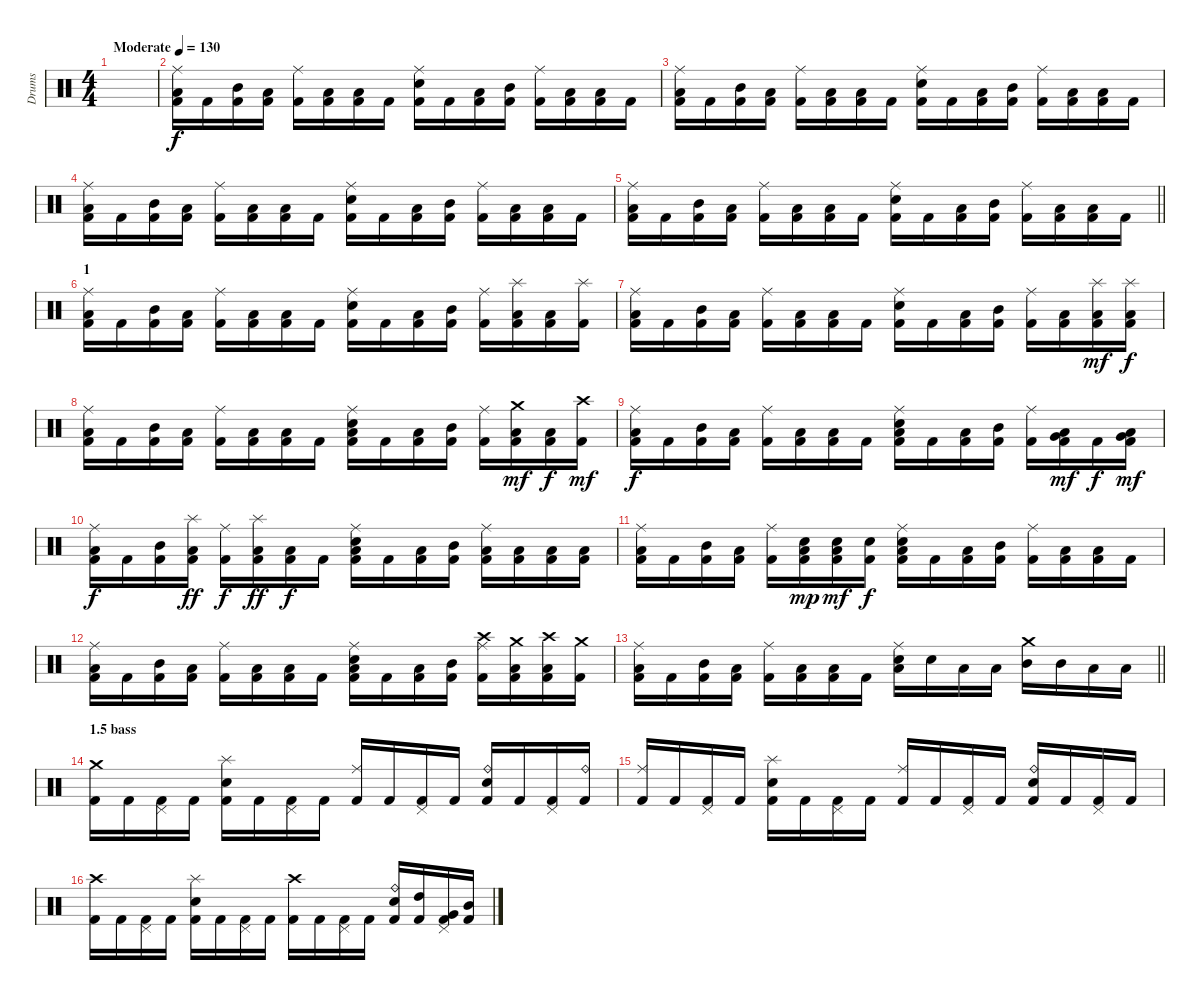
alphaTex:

\track ("Drums" "Drums") {instrument percussion}
\staff {score}
\articulation defaults
\ts (4 4)
\tempo (130 "Moderate")
\clef neutral
\ks c
|
("Ride (middle)" "Low Tom (hit)" "Kick (hit) 2").16{volume 16} "Kick (hit) 2".16 ("Mid Tom (hit)" "Kick (hit) 2").16 ("Low Tom (hit)" "Kick (hit) 2").16 ("Ride (middle)" "Kick (hit) 2").16 ("Low Tom (hit)" "Kick (hit) 2").16 ("Low Floor Tom (hit)" "Kick (hit) 2").16 "Kick (hit) 2".16 ("Ride (middle)" "Electric Snare (hit)" "Kick (hit) 2").16 "Kick (hit) 2".16 ("Low Tom (hit)" "Kick (hit) 2").16 ("Mid Tom (hit)" "Kick (hit) 2").16 ("Ride (middle)" "Kick (hit) 2").16 ("Low Tom (hit)" "Kick (hit) 2").16 ("Low Floor Tom (hit)" "Kick (hit) 2").16 "Kick (hit) 2".16 |
("Ride (middle)" "Low Tom (hit)" "Kick (hit) 2").16 "Kick (hit) 2".16 ("Mid Tom (hit)" "Kick (hit) 2").16 ("Low Tom (hit)" "Kick (hit) 2").16 ("Ride (middle)" "Kick (hit) 2").16 ("Low Tom (hit)" "Kick (hit) 2").16 ("Low Floor Tom (hit)" "Kick (hit) 2").16 "Kick (hit) 2".16 ("Ride (middle)" "Electric Snare (hit)" "Kick (hit) 2").16 "Kick (hit) 2".16 ("Low Tom (hit)" "Kick (hit) 2").16 ("Mid Tom (hit)" "Kick (hit) 2").16 ("Ride (middle)" "Kick (hit) 2").16 ("Low Tom (hit)" "Kick (hit) 2").16 ("Low Floor Tom (hit)" "Kick (hit) 2").16 "Kick (hit) 2".16 |
("Ride (middle)" "Low Tom (hit)" "Kick (hit) 2").16 "Kick (hit) 2".16 ("Mid Tom (hit)" "Kick (hit) 2").16 ("Low Tom (hit)" "Kick (hit) 2").16 ("Ride (middle)" "Kick (hit) 2").16 ("Low Tom (hit)" "Kick (hit) 2").16 ("Low Floor Tom (hit)" "Kick (hit) 2").16 "Kick (hit) 2".16 ("Ride (middle)" "Electric Snare (hit)" "Kick (hit) 2").16 "Kick (hit) 2".16 ("Low Tom (hit)" "Kick (hit) 2").16 ("Mid Tom (hit)" "Kick (hit) 2").16 ("Ride (middle)" "Kick (hit) 2").16 ("Low Tom (hit)" "Kick (hit) 2").16 ("Low Floor Tom (hit)" "Kick (hit) 2").16 "Kick (hit) 2".16 |
\barLineRight lightlight
("Ride (middle)" "Low Tom (hit)" "Kick (hit) 2").16 "Kick (hit) 2".16 ("Mid Tom (hit)" "Kick (hit) 2").16 ("Low Tom (hit)" "Kick (hit) 2").16 ("Ride (middle)" "Kick (hit) 2").16 ("Low Tom (hit)" "Kick (hit) 2").16 ("Low Floor Tom (hit)" "Kick (hit) 2").16 "Kick (hit) 2".16 ("Ride (middle)" "Electric Snare (hit)" "Kick (hit) 2").16 "Kick (hit) 2".16 ("Low Tom (hit)" "Kick (hit) 2").16 ("Mid Tom (hit)" "Kick (hit) 2").16 ("Ride (middle)" "Kick (hit) 2").16 ("Low Tom (hit)" "Kick (hit) 2").16 ("Low Floor Tom (hit)" "Kick (hit) 2").16 "Kick (hit) 2".16 |
\section ("" "1")
("Ride (middle)" "Low Tom (hit)" "Kick (hit) 2").16 "Kick (hit) 2".16 ("Mid Tom (hit)" "Kick (hit) 2").16 ("Low Tom (hit)" "Kick (hit) 2").16 ("Ride (middle)" "Kick (hit) 2").16 ("Low Tom (hit)" "Kick (hit) 2").16 ("Low Floor Tom (hit)" "Kick (hit) 2").16 "Kick (hit) 2".16 ("Ride (middle)" "Electric Snare (hit)" "Kick (hit) 2").16 "Kick (hit) 2".16 ("Low Tom (hit)" "Kick (hit) 2").16 ("Mid Tom (hit)" "Kick (hit) 2").16 ("Ride (middle)" "Kick (hit) 2").16 ("Splash (hit)" "Low Tom (hit)" "Kick (hit) 2").16 ("Low Floor Tom (hit)" "Kick (hit) 2").16 ("Splash (hit)" "Kick (hit) 2").16 |
("Ride (middle)" "Low Tom (hit)" "Kick (hit) 2").16 "Kick (hit) 2".16 ("Mid Tom (hit)" "Kick (hit) 2").16 ("Low Tom (hit)" "Kick (hit) 2").16 ("Ride (middle)" "Kick (hit) 2").16 ("Low Tom (hit)" "Kick (hit) 2").16 ("Low Floor Tom (hit)" "Kick (hit) 2").16 "Kick (hit) 2".16 ("Ride (middle)" "Electric Snare (hit)" "Kick (hit) 2").16 "Kick (hit) 2".16 ("Low Tom (hit)" "Kick (hit) 2").16 ("Mid Tom (hit)" "Kick (hit) 2").16 ("Ride (middle)" "Kick (hit) 2").16 ("Low Tom (hit)" "Kick (hit) 2").16 ("Splash (hit)" "Low Floor Tom (hit)" "Kick (hit) 2").16{dy mf} ("Splash (hit)" "Low Floor Tom (hit)" "Kick (hit) 2").16{dy f} |
("Ride (middle)" "Low Tom (hit)" "Kick (hit) 2").16 "Kick (hit) 2".16 ("Mid Tom (hit)" "Kick (hit) 2").16 ("Low Tom (hit)" "Kick (hit) 2").16 ("Ride (middle)" "Kick (hit) 2").16 ("Low Tom (hit)" "Kick (hit) 2").16 ("Low Floor Tom (hit)" "Kick (hit) 2").16 "Kick (hit) 2".16 ("Ride (middle)" "Low Tom (hit)" "Electric Snare (hit)" "Kick (hit) 2").16 "Kick (hit) 2".16 ("Low Tom (hit)" "Kick (hit) 2").16 ("Mid Tom (hit)" "Kick (hit) 2").16 ("Ride (middle)" "Kick (hit) 2").16 ("Crash medium (hit)" "Low Tom (hit)" "Kick (hit) 2").16{dy mf} ("Low Floor Tom (hit)" "Kick (hit) 2").16{dy f} ("Crash high (hit)" "Kick (hit) 2").16{dy mf} |
("Ride (middle)" "Low Tom (hit)" "Kick (hit) 2").16{dy f} "Kick (hit) 2".16 ("Mid Tom (hit)" "Kick (hit) 2").16 ("Low Tom (hit)" "Kick (hit) 2").16 ("Ride (middle)" "Kick (hit) 2").16 ("Low Tom (hit)" "Kick (hit) 2").16 ("Low Floor Tom (hit)" "Kick (hit) 2").16 "Kick (hit) 2".16 ("Ride (middle)" "Low Tom (hit)" "Electric Snare (hit)" "Kick (hit) 2").16 "Kick (hit) 2".16 ("Low Tom (hit)" "Kick (hit) 2").16 ("Mid Tom (hit)" "Kick (hit) 2").16 ("Ride (middle)" "Kick (hit) 2").16 ("Very Low Tom (hit)" "Low Tom (hit)" "Kick (hit) 2").16{dy mf} "Kick (hit) 2".16{dy f} ("Low Floor Tom (hit)" "Very Low Tom (hit)" "Kick (hit) 2").16{dy mf} |
("Ride (middle)" "Low Tom (hit)" "Kick (hit) 2").16{dy f} "Kick (hit) 2".16 ("Mid Tom (hit)" "Kick (hit) 2").16 ("Splash (hit)" "Low Tom (hit)" "Kick (hit) 2").16{dy ff} ("Ride (middle)" "Kick (hit) 2").16{dy f} ("Splash (hit)" "Low Tom (hit)" "Kick (hit) 2").16{dy ff} ("Low Floor Tom (hit)" "Kick (hit) 2").16{dy f} "Kick (hit) 2".16 ("Ride (middle)" "Low Tom (hit)" "Electric Snare (hit)" "Kick (hit) 2").16 "Kick (hit) 2".16 ("Low Tom (hit)" "Kick (hit) 2").16 ("Mid Tom (hit)" "Kick (hit) 2").16 ("Ride (middle)" "Low Tom (hit)" "Kick (hit) 2").16 ("Low Tom (hit)" "Kick (hit) 2").16 ("Low Floor Tom (hit)" "Kick (hit) 2").16 ("Low Floor Tom (hit)" "Kick (hit) 2").16 |
("Ride (middle)" "Low Tom (hit)" "Kick (hit) 2").16 "Kick (hit) 2".16 ("Mid Tom (hit)" "Kick (hit) 2").16 ("Low Tom (hit)" "Kick (hit) 2").16 ("Ride (middle)" "Kick (hit) 2").16 ("Electric Snare (hit)" "Low Tom (hit)" "Kick (hit) 2").16{dy mp} ("Electric Snare (hit)" "Low Floor Tom (hit)" "Kick (hit) 2").16{dy mf} ("Electric Snare (hit)" "Kick (hit) 2").16{dy f} ("Ride (middle)" "Low Tom (hit)" "Electric Snare (hit)" "Kick (hit) 2").16 "Kick (hit) 2".16 ("Low Tom (hit)" "Kick (hit) 2").16 ("Mid Tom (hit)" "Kick (hit) 2").16 ("Ride (middle)" "Kick (hit) 2").16 ("Low Tom (hit)" "Kick (hit) 2").16 ("Low Floor Tom (hit)" "Kick (hit) 2").16 "Kick (hit) 2".16 |
("Ride (middle)" "Low Tom (hit)" "Kick (hit) 2").16 "Kick (hit) 2".16 ("Mid Tom (hit)" "Kick (hit) 2").16 ("Low Tom (hit)" "Kick (hit) 2").16 ("Ride (middle)" "Kick (hit) 2").16 ("Low Tom (hit)" "Kick (hit) 2").16 ("Low Floor Tom (hit)" "Kick (hit) 2").16 "Kick (hit) 2".16 ("Ride (middle)" "Low Tom (hit)" "Electric Snare (hit)" "Kick (hit) 2").16 "Kick (hit) 2".16 ("Low Tom (hit)" "Kick (hit) 2").16 ("Mid Tom (hit)" "Kick (hit) 2").16 ("Crash high (hit)" "Ride (middle)" "Kick (hit) 2").16 ("Crash medium (hit)" "Low Tom (hit)" "Kick (hit) 2").16 ("Crash high (hit)" "Low Floor Tom (hit)" "Kick (hit) 2").16 ("Crash medium (hit)" "Kick (hit) 2").16 |
\barLineRight lightlight
("Ride (middle)" "Low Tom (hit)" "Kick (hit) 2").16 "Kick (hit) 2".16 ("Mid Tom (hit)" "Kick (hit) 2").16 ("Low Tom (hit)" "Kick (hit) 2").16 ("Ride (middle)" "Kick (hit) 2").16 ("Low Tom (hit)" "Kick (hit) 2").16 ("Low Floor Tom (hit)" "Kick (hit) 2").16 "Kick (hit) 2".16 ("Ride (middle)" "Low Tom (hit)" "Electric Snare (hit)").16 "Electric Snare (hit)".16 "Low Tom (hit)".16 "Low Tom (hit)".16 ("Crash medium (hit)" "Mid Tom (hit)").16 "Mid Tom (hit)".16 "Low Floor Tom (hit)".16 "Low Floor Tom (hit)".16 |
\section ("" "1.5 bass")
("Crash medium (hit)" "Kick (hit) 2").16 "Kick (hit) 2".16 ("Pedal Hi-Hat (hit)" "Kick (hit) 2").16 "Kick (hit) 2".16 ("Splash (hit)" "Electric Snare (hit)" "Kick (hit) 2").16 "Kick (hit) 2".16 ("Pedal Hi-Hat (hit)" "Kick (hit) 2").16 "Kick (hit) 2".16 ("Ride (middle)" "Kick (hit) 2").16 "Kick (hit) 2".16 ("Pedal Hi-Hat (hit)" "Kick (hit) 2").16 "Kick (hit) 2".16 ("Ride (bell)" "Electric Snare (hit)" "Kick (hit) 2").16 "Kick (hit) 2".16 ("Pedal Hi-Hat (hit)" "Kick (hit) 2").16 ("Ride (bell)" "Kick (hit) 2").16 |
("Ride (middle)" "Kick (hit) 2").16 "Kick (hit) 2".16 ("Pedal Hi-Hat (hit)" "Kick (hit) 2").16 "Kick (hit) 2".16 ("Splash (hit)" "Electric Snare (hit)" "Kick (hit) 2").16 "Kick (hit) 2".16 ("Pedal Hi-Hat (hit)" "Kick (hit) 2").16 "Kick (hit) 2".16 ("Ride (middle)" "Kick (hit) 2").16 "Kick (hit) 2".16 ("Pedal Hi-Hat (hit)" "Kick (hit) 2").16 "Kick (hit) 2".16 ("Ride (bell)" "Electric Snare (hit)" "Kick (hit) 2").16 "Kick (hit) 2".16 ("Pedal Hi-Hat (hit)" "Kick (hit) 2").16 "Kick (hit) 2".16 |
("Crash high (hit)" "Kick (hit) 2").16 "Kick (hit) 2".16 ("Pedal Hi-Hat (hit)" "Kick (hit) 2").16 "Kick (hit) 2".16 ("Splash (hit)" "Electric Snare (hit)" "Kick (hit) 2").16 "Kick (hit) 2".16 ("Pedal Hi-Hat (hit)" "Kick (hit) 2").16 "Kick (hit) 2".16 ("Crash high (hit)" "Kick (hit) 2").16 "Kick (hit) 2".16 ("Pedal Hi-Hat (hit)" "Kick (hit) 2").16 "Kick (hit) 2".16 ("Ride (bell)" "Electric Snare (hit)" "Kick (hit) 2").16 ("High Tom (hit)" "Kick (hit) 2").16 ("Pedal Hi-Hat (hit)" "Very Low Tom (hit)" "Kick (hit) 2").16 ("Mid Tom (hit)" "Kick (hit) 2").16
